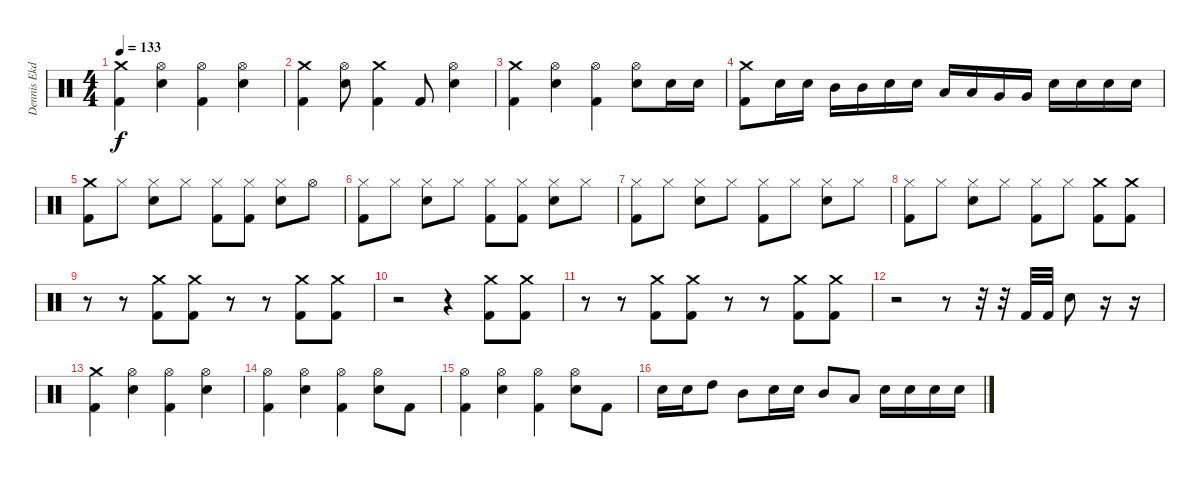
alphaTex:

\track ("Dennis Ekdahl" "Dennis Ekd") {instrument percussion}
\staff {score}
\articulation defaults
\ts (4 4)
\tempo 133
\clef neutral
\ks c
("Crash medium (hit)" "Kick (hit) 2").4{dy f} ("Hi-Hat (open)" "Snare (hit) 2").4 ("Hi-Hat (open)" "Kick (hit) 2").4 ("Hi-Hat (open)" "Snare (hit) 2").4 |
("Crash medium (hit)" "Kick (hit) 2").4 ("Hi-Hat (open)" "Snare (hit) 2").8 ("Crash medium (hit)" "Kick (hit) 2").4 "Kick (hit) 2".8 ("Hi-Hat (open)" "Snare (hit) 2").4 |
("Crash medium (hit)" "Kick (hit) 2").4 ("Hi-Hat (open)" "Snare (hit) 2").4 ("Hi-Hat (open)" "Kick (hit) 2").4 ("Hi-Hat (open)" "Snare (hit) 2").8 "Snare (hit) 2".16 "Snare (hit) 2".16 |
("Crash medium (hit)" "Kick (hit) 2").8 "Snare (hit) 2".16 "Snare (hit) 2".16 "Mid Tom (hit)".16 "Mid Tom (hit)".16 "Snare (hit) 2".16 "Snare (hit) 2".16 "Low Tom (hit)".16 "Low Tom (hit)".16 "Very Low Tom (hit)".16 "Very Low Tom (hit)".16 "Snare (hit) 2".16 "Snare (hit) 2".16 "Snare (hit) 2".16 "Snare (hit) 2".16 |
("Crash medium (hit)" "Kick (hit) 2").8 "Hi-Hat (closed)".8 ("Hi-Hat (closed)" "Snare (hit) 2").8 "Hi-Hat (closed)".8 ("Hi-Hat (closed)" "Kick (hit) 2").8 ("Hi-Hat (closed)" "Kick (hit) 2").8 ("Hi-Hat (closed)" "Snare (hit) 2").8 "Hi-Hat (open)".8 |
("Hi-Hat (closed)" "Kick (hit) 2").8 "Hi-Hat (closed)".8 ("Hi-Hat (closed)" "Snare (hit) 2").8 "Hi-Hat (closed)".8 ("Hi-Hat (closed)" "Kick (hit) 2").8 ("Hi-Hat (closed)" "Kick (hit) 2").8 ("Hi-Hat (closed)" "Snare (hit) 2").8 "Hi-Hat (closed)".8 |
("Hi-Hat (closed)" "Kick (hit) 2").8 "Hi-Hat (closed)".8 ("Hi-Hat (closed)" "Snare (hit) 2").8 "Hi-Hat (closed)".8 ("Hi-Hat (closed)" "Kick (hit) 2").8 "Hi-Hat (closed)".8 ("Hi-Hat (closed)" "Snare (hit) 2").8 "Hi-Hat (closed)".8 |
("Hi-Hat (closed)" "Kick (hit) 2").8 "Hi-Hat (closed)".8 ("Hi-Hat (closed)" "Snare (hit) 2").8 "Hi-Hat (closed)".8 ("Hi-Hat (closed)" "Kick (hit) 2").8 "Hi-Hat (closed)".8 ("Crash medium (hit)" "Kick (hit) 2").8 ("Crash medium (hit)" "Kick (hit) 2").8 |
r.8 r.8 ("Crash medium (hit)" "Kick (hit) 2").8 ("Crash medium (hit)" "Kick (hit) 2").8 r.8 r.8 ("Crash medium (hit)" "Kick (hit) 2").8 ("Crash medium (hit)" "Kick (hit) 2").8 |
r.2 r.4 ("Crash medium (hit)" "Kick (hit) 2").8 ("Crash medium (hit)" "Kick (hit) 2").8 |
r.8 r.8 ("Crash medium (hit)" "Kick (hit) 2").8 ("Crash medium (hit)" "Kick (hit) 2").8 r.8 r.8 ("Crash medium (hit)" "Kick (hit) 2").8 ("Crash medium (hit)" "Kick (hit) 2").8 |
r.2 r.8 r.32 r.32 "Kick (hit) 2".32 "Kick (hit) 2".32 "Snare (hit) 2".8 r.16 r.16 |
("Crash medium (hit)" "Kick (hit) 2").4 ("Hi-Hat (open)" "Snare (hit) 2").4 ("Hi-Hat (open)" "Kick (hit) 2").4 ("Hi-Hat (open)" "Snare (hit) 2").4 |
("Hi-Hat (open)" "Kick (hit) 2").4 ("Hi-Hat (open)" "Snare (hit) 2").4 ("Hi-Hat (open)" "Kick (hit) 2").4 ("Hi-Hat (open)" "Snare (hit) 2").8 "Kick (hit) 2".8 |
("Hi-Hat (open)" "Kick (hit) 2").4 ("Hi-Hat (open)" "Snare (hit) 2").4 ("Hi-Hat (open)" "Kick (hit) 2").4 ("Hi-Hat (open)" "Snare (hit) 2").8 "Kick (hit) 2".8 |
"Snare (hit) 2".16 "Snare (hit) 2".16 "High Tom (hit)".8 "Mid Tom (hit)".8 "Snare (hit) 2".16 "Snare (hit) 2".16 "Mid Tom (hit)".8 "Low Tom (hit)".8 "Snare (hit) 2".16 "Snare (hit) 2".16 "Snare (hit) 2".16 "Snare (hit) 2".16
